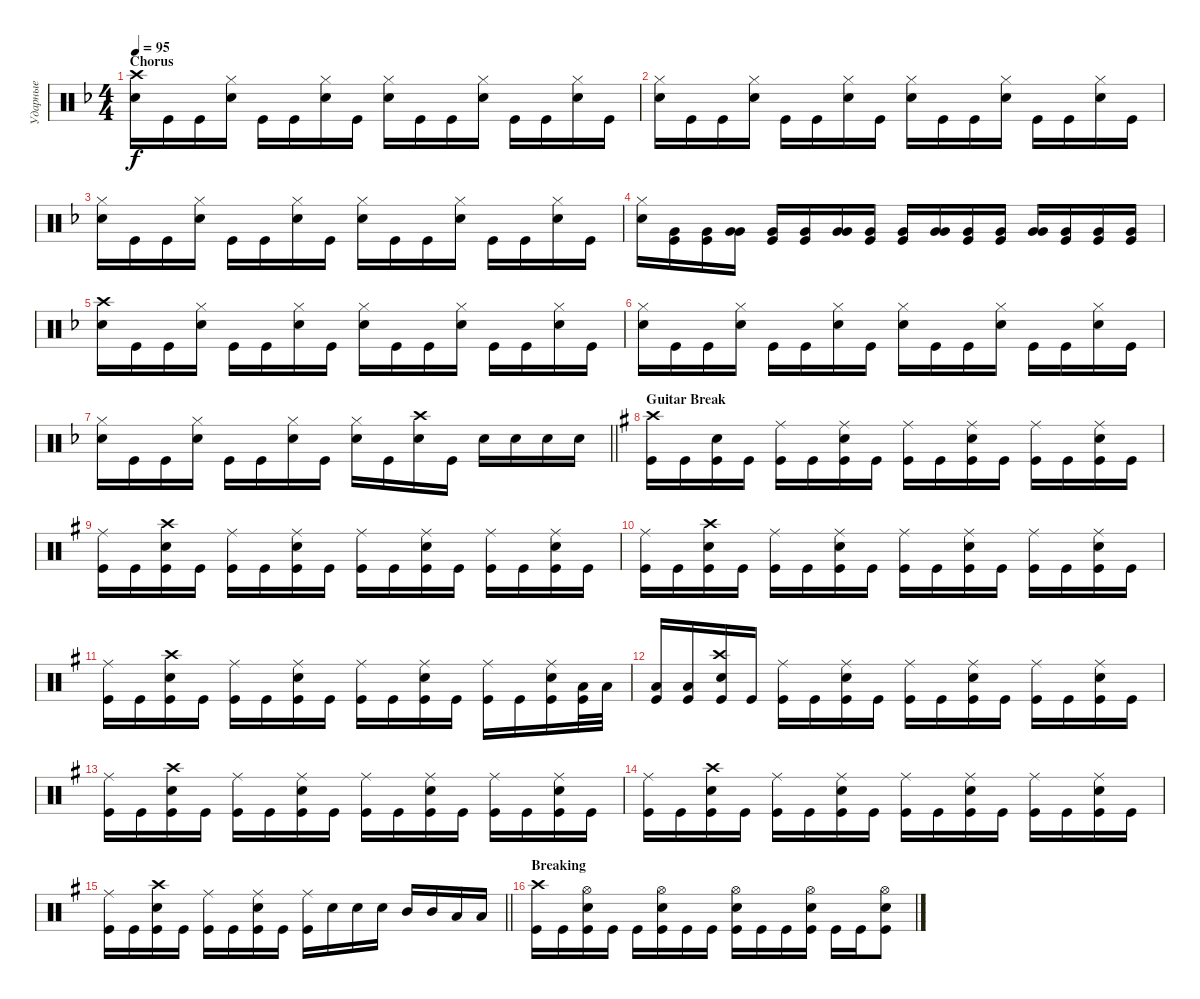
\track ("Ударные" "Ударные") {instrument percussion}
\staff {score}
\articulation defaults
\ts (4 4)
\section ("" "Chorus")
\tempo 95
\clef neutral
\ks dminor
("Snare (hit) 2" "Crash high (hit)").16{dy f} "Kick (hit)".16 "Kick (hit)".16 ("Snare (hit) 2" "Hi-Hat (closed)").16 "Kick (hit)".16 "Kick (hit)".16 ("Snare (hit) 2" "Hi-Hat (closed)").16 "Kick (hit)".16 ("Snare (hit) 2" "Hi-Hat (closed)").16 "Kick (hit)".16 "Kick (hit)".16 ("Snare (hit) 2" "Hi-Hat (closed)").16 "Kick (hit)".16 "Kick (hit)".16 ("Snare (hit) 2" "Hi-Hat (closed)").16 "Kick (hit)".16 |
("Snare (hit) 2" "Hi-Hat (closed)").16 "Kick (hit)".16 "Kick (hit)".16 ("Snare (hit) 2" "Hi-Hat (closed)").16 "Kick (hit)".16 "Kick (hit)".16 ("Snare (hit) 2" "Hi-Hat (closed)").16 "Kick (hit)".16 ("Snare (hit) 2" "Hi-Hat (closed)").16 "Kick (hit)".16 "Kick (hit)".16 ("Snare (hit) 2" "Hi-Hat (closed)").16 "Kick (hit)".16 "Kick (hit)".16 ("Snare (hit) 2" "Hi-Hat (closed)").16 "Kick (hit)".16 |
("Snare (hit) 2" "Hi-Hat (closed)").16 "Kick (hit)".16 "Kick (hit)".16 ("Snare (hit) 2" "Hi-Hat (closed)").16 "Kick (hit)".16 "Kick (hit)".16 ("Snare (hit) 2" "Hi-Hat (closed)").16 "Kick (hit)".16 ("Snare (hit) 2" "Hi-Hat (closed)").16 "Kick (hit)".16 "Kick (hit)".16 ("Snare (hit) 2" "Hi-Hat (closed)").16 "Kick (hit)".16 "Kick (hit)".16 ("Snare (hit) 2" "Hi-Hat (closed)").16 "Kick (hit)".16 |
("Snare (hit) 2" "Hi-Hat (closed)").16 ("Kick (hit)" "Very Low Tom (hit)").16 ("Kick (hit)" "Very Low Tom (hit)").16 ("Very Low Tom (hit)" "Very Low Tom (hit)").16{bd 240} ("Kick (hit)" "Very Low Tom (hit)").16 ("Kick (hit)" "Very Low Tom (hit)").16 ("Very Low Tom (hit)" "Very Low Tom (hit)").16{bd 240} ("Kick (hit)" "Very Low Tom (hit)").16 ("Kick (hit)" "Very Low Tom (hit)").16 ("Very Low Tom (hit)" "Very Low Tom (hit)").16{bd 240} ("Kick (hit)" "Very Low Tom (hit)").16 ("Kick (hit)" "Very Low Tom (hit)").16 ("Very Low Tom (hit)" "Very Low Tom (hit)").16{bd 240} ("Kick (hit)" "Very Low Tom (hit)").16 ("Kick (hit)" "Very Low Tom (hit)").16 ("Very Low Tom (hit)" "Kick (hit)").16 |
("Snare (hit) 2" "Crash high (hit)").16 "Kick (hit)".16 "Kick (hit)".16 ("Snare (hit) 2" "Hi-Hat (closed)").16 "Kick (hit)".16 "Kick (hit)".16 ("Snare (hit) 2" "Hi-Hat (closed)").16 "Kick (hit)".16 ("Snare (hit) 2" "Hi-Hat (closed)").16 "Kick (hit)".16 "Kick (hit)".16 ("Snare (hit) 2" "Hi-Hat (closed)").16 "Kick (hit)".16 "Kick (hit)".16 ("Snare (hit) 2" "Hi-Hat (closed)").16 "Kick (hit)".16 |
("Snare (hit) 2" "Hi-Hat (closed)").16 "Kick (hit)".16 "Kick (hit)".16 ("Snare (hit) 2" "Hi-Hat (closed)").16 "Kick (hit)".16 "Kick (hit)".16 ("Snare (hit) 2" "Hi-Hat (closed)").16 "Kick (hit)".16 ("Snare (hit) 2" "Hi-Hat (closed)").16 "Kick (hit)".16 "Kick (hit)".16 ("Snare (hit) 2" "Hi-Hat (closed)").16 "Kick (hit)".16 "Kick (hit)".16 ("Snare (hit) 2" "Hi-Hat (closed)").16 "Kick (hit)".16 |
\barLineRight lightlight
("Snare (hit) 2" "Hi-Hat (closed)").16 "Kick (hit)".16 "Kick (hit)".16 ("Snare (hit) 2" "Hi-Hat (closed)").16 "Kick (hit)".16 "Kick (hit)".16 ("Snare (hit) 2" "Hi-Hat (closed)").16 "Kick (hit)".16 ("Snare (hit) 2" "Hi-Hat (closed)").16 "Kick (hit)".16 ("Snare (hit) 2" "Crash high (hit)").16 "Kick (hit)".16 "Snare (hit) 2".16 "Snare (hit) 2".16 "Snare (hit) 2".16 "Snare (hit) 2".16 |
\section ("" "Guitar Break")
\ks eminor
("Kick (hit)" "Crash high (hit)").16 "Kick (hit)".16 ("Snare (hit) 2" "Kick (hit)").16 "Kick (hit)".16 ("Kick (hit)" "Ride (middle)").16 "Kick (hit)".16 ("Kick (hit)" "Snare (hit) 2" "Ride (middle)").16 "Kick (hit)".16 ("Kick (hit)" "Ride (middle)").16 "Kick (hit)".16 ("Kick (hit)" "Snare (hit) 2" "Ride (middle)").16 "Kick (hit)".16 ("Ride (middle)" "Kick (hit)").16 "Kick (hit)".16 ("Snare (hit) 2" "Kick (hit)" "Ride (middle)").16 "Kick (hit)".16 |
("Kick (hit)" "Ride (middle)").16 "Kick (hit)".16 ("Snare (hit) 2" "Kick (hit)" "Crash high (hit)").16 "Kick (hit)".16 ("Kick (hit)" "Ride (middle)").16 "Kick (hit)".16 ("Kick (hit)" "Snare (hit) 2" "Ride (middle)").16 "Kick (hit)".16 ("Kick (hit)" "Ride (middle)").16 "Kick (hit)".16 ("Kick (hit)" "Snare (hit) 2" "Ride (middle)").16 "Kick (hit)".16 ("Ride (middle)" "Kick (hit)").16 "Kick (hit)".16 ("Snare (hit) 2" "Kick (hit)" "Ride (middle)").16 "Kick (hit)".16 |
("Kick (hit)" "Ride (middle)").16 "Kick (hit)".16 ("Snare (hit) 2" "Kick (hit)" "Crash high (hit)").16 "Kick (hit)".16 ("Kick (hit)" "Ride (middle)").16 "Kick (hit)".16 ("Kick (hit)" "Snare (hit) 2" "Ride (middle)").16 "Kick (hit)".16 ("Kick (hit)" "Ride (middle)").16 "Kick (hit)".16 ("Kick (hit)" "Snare (hit) 2" "Ride (middle)").16 "Kick (hit)".16 ("Ride (middle)" "Kick (hit)").16 "Kick (hit)".16 ("Snare (hit) 2" "Kick (hit)" "Ride (middle)").16 "Kick (hit)".16 |
("Kick (hit)" "Ride (middle)").16 "Kick (hit)".16 ("Snare (hit) 2" "Kick (hit)" "Crash high (hit)").16 "Kick (hit)".16 ("Kick (hit)" "Ride (middle)").16 "Kick (hit)".16 ("Kick (hit)" "Snare (hit) 2" "Ride (middle)").16 "Kick (hit)".16 ("Kick (hit)" "Ride (middle)").16 "Kick (hit)".16 ("Kick (hit)" "Snare (hit) 2" "Ride (middle)").16 "Kick (hit)".16 ("Ride (middle)" "Kick (hit)").16 "Kick (hit)".16 ("Snare (hit) 2" "Kick (hit)" "Ride (middle)").16 ("Kick (hit)" "Low Tom (hit)").32 "Low Tom (hit)".32 |
("Kick (hit)" "Low Tom (hit)").16 ("Kick (hit)" "Low Tom (hit)").16 ("Snare (hit) 2" "Kick (hit)" "Crash high (hit)").16 "Kick (hit)".16 ("Kick (hit)" "Ride (middle)").16 "Kick (hit)".16 ("Kick (hit)" "Snare (hit) 2" "Ride (middle)").16 "Kick (hit)".16 ("Kick (hit)" "Ride (middle)").16 "Kick (hit)".16 ("Kick (hit)" "Snare (hit) 2" "Ride (middle)").16 "Kick (hit)".16 ("Ride (middle)" "Kick (hit)").16 "Kick (hit)".16 ("Snare (hit) 2" "Kick (hit)" "Ride (middle)").16 "Kick (hit)".16 |
("Kick (hit)" "Ride (middle)").16 "Kick (hit)".16 ("Snare (hit) 2" "Kick (hit)" "Crash high (hit)").16 "Kick (hit)".16 ("Kick (hit)" "Ride (middle)").16 "Kick (hit)".16 ("Kick (hit)" "Snare (hit) 2" "Ride (middle)").16 "Kick (hit)".16 ("Kick (hit)" "Ride (middle)").16 "Kick (hit)".16 ("Kick (hit)" "Snare (hit) 2" "Ride (middle)").16 "Kick (hit)".16 ("Ride (middle)" "Kick (hit)").16 "Kick (hit)".16 ("Snare (hit) 2" "Kick (hit)" "Ride (middle)").16 "Kick (hit)".16 |
("Kick (hit)" "Ride (middle)").16 "Kick (hit)".16 ("Snare (hit) 2" "Kick (hit)" "Crash high (hit)").16 "Kick (hit)".16 ("Kick (hit)" "Ride (middle)").16 "Kick (hit)".16 ("Kick (hit)" "Snare (hit) 2" "Ride (middle)").16 "Kick (hit)".16 ("Kick (hit)" "Ride (middle)").16 "Kick (hit)".16 ("Kick (hit)" "Snare (hit) 2" "Ride (middle)").16 "Kick (hit)".16 ("Ride (middle)" "Kick (hit)").16 "Kick (hit)".16 ("Snare (hit) 2" "Kick (hit)" "Ride (middle)").16 "Kick (hit)".16 |
\barLineRight lightlight
("Kick (hit)" "Ride (middle)").16 "Kick (hit)".16 ("Snare (hit) 2" "Kick (hit)" "Crash high (hit)").16 "Kick (hit)".16 ("Kick (hit)" "Ride (middle)").16 "Kick (hit)".16 ("Kick (hit)" "Snare (hit) 2" "Ride (middle)").16 "Kick (hit)".16 ("Kick (hit)" "Ride (middle)").16 "Snare (hit) 2".16 "Snare (hit) 2".16 "Snare (hit) 2".16 "Mid Tom (hit)".16 "Mid Tom (hit)".16 "Low Tom (hit)".16 "Low Tom (hit)".16 |
\section ("" "Breaking")
("Kick (hit)" "Crash high (hit)").16 "Kick (hit)".16 ("Snare (hit) 2" "Kick (hit)" "Hi-Hat (open)").16 "Kick (hit)".16 "Kick (hit)".16 ("Kick (hit)" "Snare (hit) 2" "Hi-Hat (open)").16 "Kick (hit)".16 "Kick (hit)".16 ("Kick (hit)" "Snare (hit) 2" "Hi-Hat (open)").16 "Kick (hit)".16 "Kick (hit)".16 ("Kick (hit)" "Snare (hit) 2" "Hi-Hat (open)").16 "Kick (hit)".16 "Kick (hit)".16 ("Snare (hit) 2" "Kick (hit)" "Hi-Hat (open)").8
